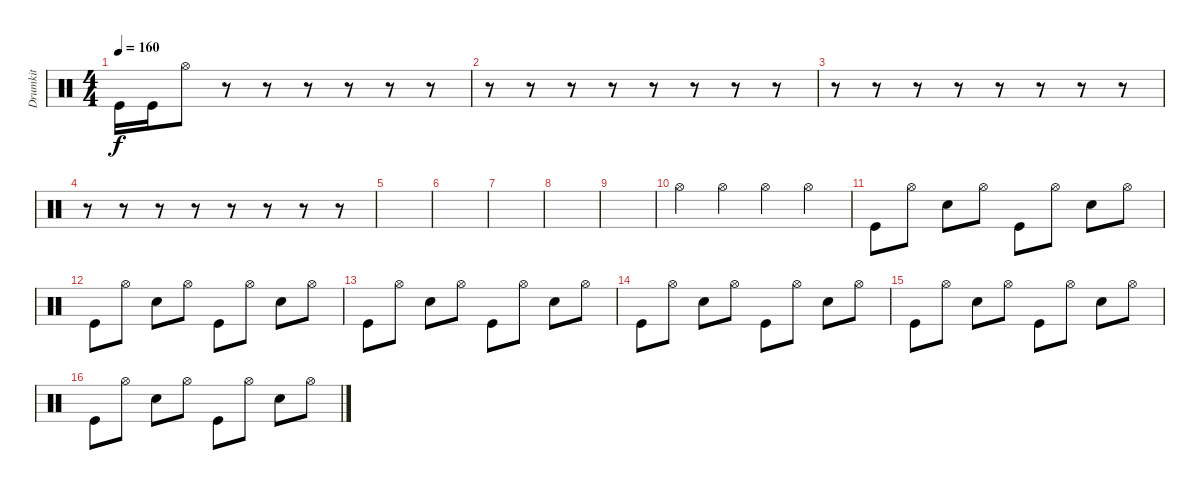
\track ("Drumkit" "Drumkit") {instrument percussion}
\staff {score}
\articulation defaults
\ts (4 4)
\tempo 160
\clef neutral
\ks c "Kick (hit)".16{dy f} "Kick (hit)".16 "Hi-Hat (open)".8
r.8 r.8 r.8 r.8 r.8 r.8 |
r.8 r.8 r.8 r.8 r.8 r.8 r.8 r.8 |
r.8 r.8 r.8 r.8 r.8 r.8 r.8 r.8 |
r.8 r.8 r.8 r.8 r.8 r.8 r.8 r.8 |
|
|
|
|
|
"Hi-Hat (open)".4 "Hi-Hat (open)".4 "Hi-Hat (open)".4 "Hi-Hat (open)".4 |
"Kick (hit)".8 "Hi-Hat (open)".8 "Snare (hit) 2".8 "Hi-Hat (open)".8 "Kick (hit)".8 "Hi-Hat (open)".8 "Snare (hit) 2".8 "Hi-Hat (open)".8 |
"Kick (hit)".8 "Hi-Hat (open)".8 "Snare (hit) 2".8 "Hi-Hat (open)".8 "Kick (hit)".8 "Hi-Hat (open)".8 "Snare (hit) 2".8 "Hi-Hat (open)".8 |
"Kick (hit)".8 "Hi-Hat (open)".8 "Snare (hit) 2".8 "Hi-Hat (open)".8 "Kick (hit)".8 "Hi-Hat (open)".8 "Snare (hit) 2".8 "Hi-Hat (open)".8 |
"Kick (hit)".8 "Hi-Hat (open)".8 "Snare (hit) 2".8 "Hi-Hat (open)".8 "Kick (hit)".8 "Hi-Hat (open)".8 "Snare (hit) 2".8 "Hi-Hat (open)".8 |
"Kick (hit)".8 "Hi-Hat (open)".8 "Snare (hit) 2".8 "Hi-Hat (open)".8 "Kick (hit)".8 "Hi-Hat (open)".8 "Snare (hit) 2".8 "Hi-Hat (open)".8 |
"Kick (hit)".8 "Hi-Hat (open)".8 "Snare (hit) 2".8 "Hi-Hat (open)".8 "Kick (hit)".8 "Hi-Hat (open)".8 "Snare (hit) 2".8 "Hi-Hat (open)".8
